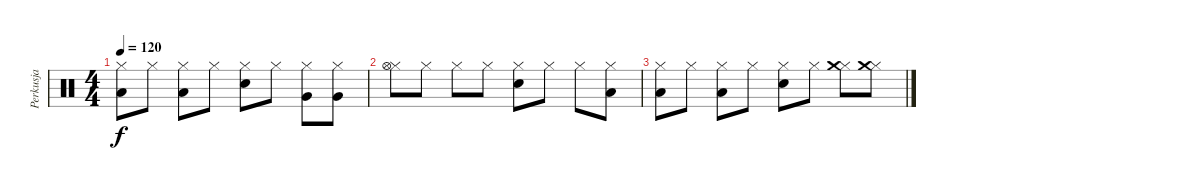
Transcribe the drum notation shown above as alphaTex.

\track ("Perkusja" "Perkusja") {instrument percussion}
\staff {score}
\articulation defaults
\ts (4 4)
\tempo 120
\clef neutral
\ks c
("Hi-Hat (closed)" "Low Floor Tom (hit)").8{dy f} "Hi-Hat (closed)".8 ("Hi-Hat (closed)" "Low Floor Tom (hit)").8 "Hi-Hat (closed)".8 ("Hi-Hat (closed)" "Snare (hit) 2").8 "Hi-Hat (closed)".8 ("Hi-Hat (closed)" "Very Low Tom (hit)").8 ("Hi-Hat (closed)" "Very Low Tom (hit)").8 |
("Hi-Hat (closed)" "Hi-Hat (open)").8 "Hi-Hat (closed)".8 "Hi-Hat (closed)".8 "Hi-Hat (closed)".8 ("Hi-Hat (closed)" "Snare (hit) 2").8 "Hi-Hat (closed)".8 "Hi-Hat (closed)".8 ("Hi-Hat (closed)" "Low Floor Tom (hit)").8 |
("Hi-Hat (closed)" "Low Floor Tom (hit)").8 "Hi-Hat (closed)".8 ("Hi-Hat (closed)" "Low Floor Tom (hit)").8 "Hi-Hat (closed)".8 ("Hi-Hat (closed)" "Snare (hit) 2").8 "Hi-Hat (closed)".8 ("Hi-Hat (closed)" "Crash medium (hit)").8 ("Hi-Hat (closed)" "Crash medium (hit)").8
